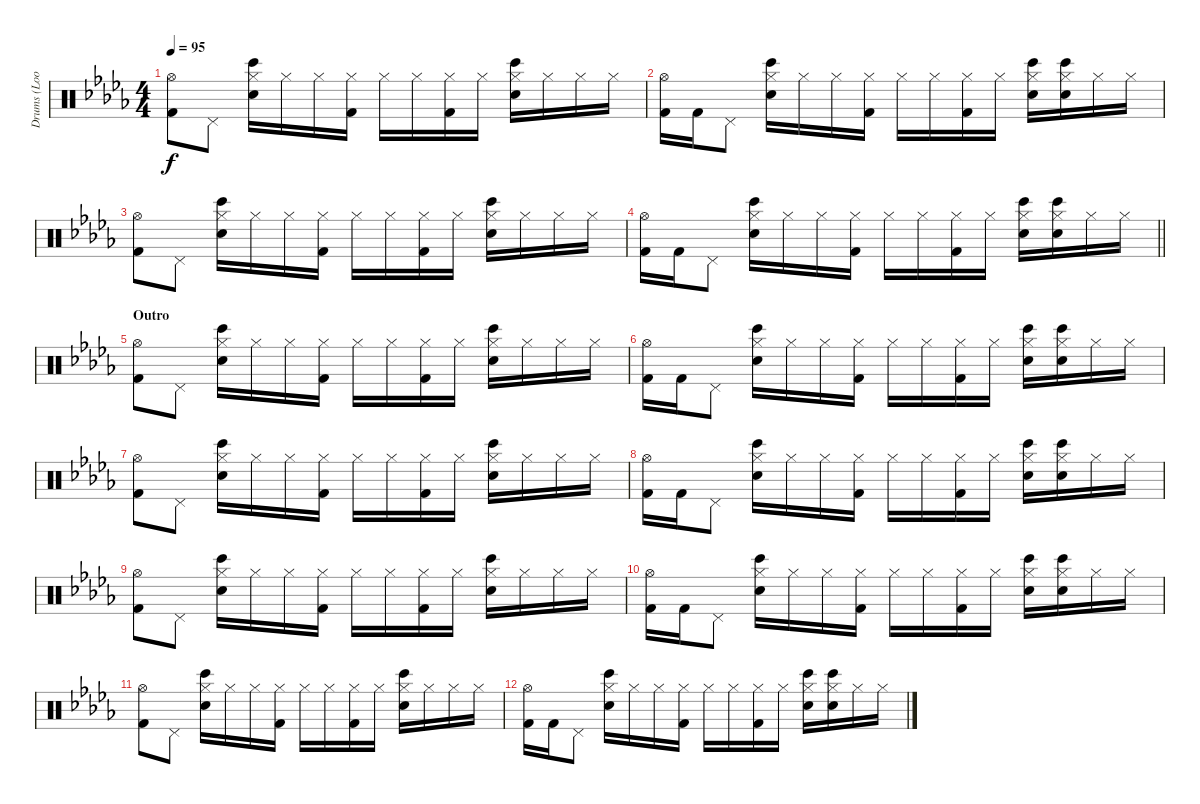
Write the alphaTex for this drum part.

\track ("Drums (Loops)" "Drums (Loo") {instrument percussion}
\staff {score}
\articulation defaults
\ts (4 4)
\tempo 95
\clef neutral
\ks db
("Hi-Hat (open)" "Kick (hit) 2").8{dy f} "Pedal Hi-Hat (hit)".8 ("Hi-Hat (closed)" "Snare (hit) 2" "Bongo High (hit)").16 "Hi-Hat (closed)".16 "Hi-Hat (closed)".16 ("Hi-Hat (closed)" "Kick (hit) 2").16 "Hi-Hat (closed)".16 "Hi-Hat (closed)".16 ("Hi-Hat (closed)" "Kick (hit) 2").16 "Hi-Hat (closed)".16 ("Hi-Hat (closed)" "Snare (hit) 2" "Bongo High (hit)").16 "Hi-Hat (closed)".16 "Hi-Hat (closed)".16 "Hi-Hat (closed)".16 |
("Hi-Hat (open)" "Kick (hit) 2").16 "Kick (hit) 2".16 "Pedal Hi-Hat (hit)".8 ("Hi-Hat (closed)" "Snare (hit) 2" "Bongo High (hit)").16 "Hi-Hat (closed)".16 "Hi-Hat (closed)".16 ("Hi-Hat (closed)" "Kick (hit) 2").16 "Hi-Hat (closed)".16 "Hi-Hat (closed)".16 ("Hi-Hat (closed)" "Kick (hit) 2").16 "Hi-Hat (closed)".16 ("Hi-Hat (closed)" "Snare (hit) 2" "Bongo High (hit)").16 ("Hi-Hat (closed)" "Snare (hit) 2" "Bongo High (hit)").16 "Hi-Hat (closed)".16 "Hi-Hat (closed)".16 |
("Hi-Hat (open)" "Kick (hit) 2").8 "Pedal Hi-Hat (hit)".8 ("Hi-Hat (closed)" "Snare (hit) 2" "Bongo High (hit)").16 "Hi-Hat (closed)".16 "Hi-Hat (closed)".16 ("Hi-Hat (closed)" "Kick (hit) 2").16 "Hi-Hat (closed)".16 "Hi-Hat (closed)".16 ("Hi-Hat (closed)" "Kick (hit) 2").16 "Hi-Hat (closed)".16 ("Hi-Hat (closed)" "Snare (hit) 2" "Bongo High (hit)").16 "Hi-Hat (closed)".16 "Hi-Hat (closed)".16 "Hi-Hat (closed)".16 |
\barLineRight lightlight
("Hi-Hat (open)" "Kick (hit) 2").16 "Kick (hit) 2".16 "Pedal Hi-Hat (hit)".8 ("Hi-Hat (closed)" "Snare (hit) 2" "Bongo High (hit)").16 "Hi-Hat (closed)".16 "Hi-Hat (closed)".16 ("Hi-Hat (closed)" "Kick (hit) 2").16 "Hi-Hat (closed)".16 "Hi-Hat (closed)".16 ("Hi-Hat (closed)" "Kick (hit) 2").16 "Hi-Hat (closed)".16 ("Hi-Hat (closed)" "Snare (hit) 2" "Bongo High (hit)").16 ("Hi-Hat (closed)" "Snare (hit) 2" "Bongo High (hit)").16 "Hi-Hat (closed)".16 "Hi-Hat (closed)".16 |
\section ("" "Outro")
("Hi-Hat (open)" "Kick (hit) 2").8 "Pedal Hi-Hat (hit)".8 ("Hi-Hat (closed)" "Snare (hit) 2" "Bongo High (hit)").16 "Hi-Hat (closed)".16 "Hi-Hat (closed)".16 ("Hi-Hat (closed)" "Kick (hit) 2").16 "Hi-Hat (closed)".16 "Hi-Hat (closed)".16 ("Hi-Hat (closed)" "Kick (hit) 2").16 "Hi-Hat (closed)".16 ("Hi-Hat (closed)" "Snare (hit) 2" "Bongo High (hit)").16 "Hi-Hat (closed)".16 "Hi-Hat (closed)".16 "Hi-Hat (closed)".16 |
("Hi-Hat (open)" "Kick (hit) 2").16 "Kick (hit) 2".16 "Pedal Hi-Hat (hit)".8 ("Hi-Hat (closed)" "Snare (hit) 2" "Bongo High (hit)").16 "Hi-Hat (closed)".16 "Hi-Hat (closed)".16 ("Hi-Hat (closed)" "Kick (hit) 2").16 "Hi-Hat (closed)".16 "Hi-Hat (closed)".16 ("Hi-Hat (closed)" "Kick (hit) 2").16 "Hi-Hat (closed)".16 ("Hi-Hat (closed)" "Snare (hit) 2" "Bongo High (hit)").16 ("Hi-Hat (closed)" "Snare (hit) 2" "Bongo High (hit)").16 "Hi-Hat (closed)".16 "Hi-Hat (closed)".16 |
("Hi-Hat (open)" "Kick (hit) 2").8 "Pedal Hi-Hat (hit)".8 ("Hi-Hat (closed)" "Snare (hit) 2" "Bongo High (hit)").16 "Hi-Hat (closed)".16 "Hi-Hat (closed)".16 ("Hi-Hat (closed)" "Kick (hit) 2").16 "Hi-Hat (closed)".16 "Hi-Hat (closed)".16 ("Hi-Hat (closed)" "Kick (hit) 2").16 "Hi-Hat (closed)".16 ("Hi-Hat (closed)" "Snare (hit) 2" "Bongo High (hit)").16 "Hi-Hat (closed)".16 "Hi-Hat (closed)".16 "Hi-Hat (closed)".16 |
("Hi-Hat (open)" "Kick (hit) 2").16 "Kick (hit) 2".16 "Pedal Hi-Hat (hit)".8 ("Hi-Hat (closed)" "Snare (hit) 2" "Bongo High (hit)").16 "Hi-Hat (closed)".16 "Hi-Hat (closed)".16 ("Hi-Hat (closed)" "Kick (hit) 2").16 "Hi-Hat (closed)".16 "Hi-Hat (closed)".16 ("Hi-Hat (closed)" "Kick (hit) 2").16 "Hi-Hat (closed)".16 ("Hi-Hat (closed)" "Snare (hit) 2" "Bongo High (hit)").16 ("Hi-Hat (closed)" "Snare (hit) 2" "Bongo High (hit)").16 "Hi-Hat (closed)".16 "Hi-Hat (closed)".16 |
("Hi-Hat (open)" "Kick (hit) 2").8 "Pedal Hi-Hat (hit)".8 ("Hi-Hat (closed)" "Snare (hit) 2" "Bongo High (hit)").16 "Hi-Hat (closed)".16 "Hi-Hat (closed)".16 ("Hi-Hat (closed)" "Kick (hit) 2").16 "Hi-Hat (closed)".16 "Hi-Hat (closed)".16 ("Hi-Hat (closed)" "Kick (hit) 2").16 "Hi-Hat (closed)".16 ("Hi-Hat (closed)" "Snare (hit) 2" "Bongo High (hit)").16 "Hi-Hat (closed)".16 "Hi-Hat (closed)".16 "Hi-Hat (closed)".16 |
("Hi-Hat (open)" "Kick (hit) 2").16 "Kick (hit) 2".16 "Pedal Hi-Hat (hit)".8 ("Hi-Hat (closed)" "Snare (hit) 2" "Bongo High (hit)").16 "Hi-Hat (closed)".16 "Hi-Hat (closed)".16 ("Hi-Hat (closed)" "Kick (hit) 2").16 "Hi-Hat (closed)".16 "Hi-Hat (closed)".16 ("Hi-Hat (closed)" "Kick (hit) 2").16 "Hi-Hat (closed)".16 ("Hi-Hat (closed)" "Snare (hit) 2" "Bongo High (hit)").16 ("Hi-Hat (closed)" "Snare (hit) 2" "Bongo High (hit)").16 "Hi-Hat (closed)".16 "Hi-Hat (closed)".16 |
("Hi-Hat (open)" "Kick (hit) 2").8 "Pedal Hi-Hat (hit)".8 ("Hi-Hat (closed)" "Snare (hit) 2" "Bongo High (hit)").16 "Hi-Hat (closed)".16 "Hi-Hat (closed)".16 ("Hi-Hat (closed)" "Kick (hit) 2").16 "Hi-Hat (closed)".16 "Hi-Hat (closed)".16 ("Hi-Hat (closed)" "Kick (hit) 2").16 "Hi-Hat (closed)".16 ("Hi-Hat (closed)" "Snare (hit) 2" "Bongo High (hit)").16 "Hi-Hat (closed)".16 "Hi-Hat (closed)".16 "Hi-Hat (closed)".16 |
("Hi-Hat (open)" "Kick (hit) 2").16 "Kick (hit) 2".16 "Pedal Hi-Hat (hit)".8 ("Hi-Hat (closed)" "Snare (hit) 2" "Bongo High (hit)").16 "Hi-Hat (closed)".16 "Hi-Hat (closed)".16 ("Hi-Hat (closed)" "Kick (hit) 2").16 "Hi-Hat (closed)".16 "Hi-Hat (closed)".16 ("Hi-Hat (closed)" "Kick (hit) 2").16 "Hi-Hat (closed)".16 ("Hi-Hat (closed)" "Snare (hit) 2" "Bongo High (hit)").16 ("Hi-Hat (closed)" "Snare (hit) 2" "Bongo High (hit)").16 "Hi-Hat (closed)".16 "Hi-Hat (closed)".16
